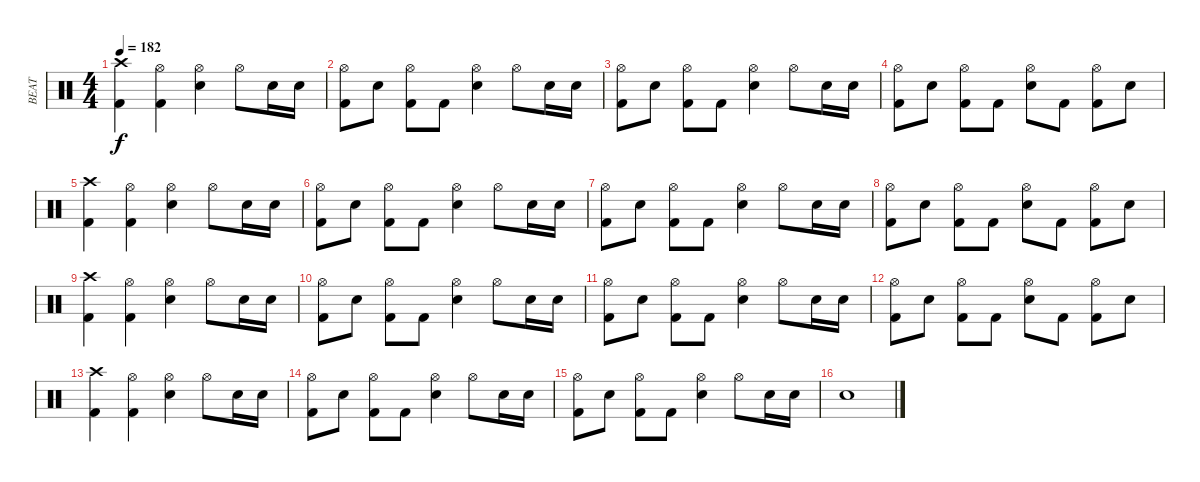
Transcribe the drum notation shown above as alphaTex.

\track ("BEAT" "BEAT") {instrument percussion}
\staff {score}
\articulation defaults
\ts (4 4)
\tempo 182
\clef neutral
\ks c
("Crash high (hit)" "Kick (hit) 2").4{dy f} ("Hi-Hat (open)" "Kick (hit) 2").4 ("Hi-Hat (open)" "Electric Snare (hit)").4 "Hi-Hat (open)".8 "Electric Snare (hit)".16 "Electric Snare (hit)".16 |
("Hi-Hat (open)" "Kick (hit) 2").8 "Electric Snare (hit)".8 ("Hi-Hat (open)" "Kick (hit) 2").8 "Kick (hit) 2".8 ("Hi-Hat (open)" "Electric Snare (hit)").4 "Hi-Hat (open)".8 "Electric Snare (hit)".16 "Electric Snare (hit)".16 |
("Hi-Hat (open)" "Kick (hit) 2").8 "Electric Snare (hit)".8 ("Hi-Hat (open)" "Kick (hit) 2").8 "Kick (hit) 2".8 ("Hi-Hat (open)" "Electric Snare (hit)").4 "Hi-Hat (open)".8 "Electric Snare (hit)".16 "Electric Snare (hit)".16 |
("Hi-Hat (open)" "Kick (hit) 2").8 "Electric Snare (hit)".8 ("Hi-Hat (open)" "Kick (hit) 2").8 "Kick (hit) 2".8 ("Hi-Hat (open)" "Electric Snare (hit)").8 "Kick (hit) 2".8 ("Hi-Hat (open)" "Kick (hit) 2").8 "Electric Snare (hit)".8 |
("Crash high (hit)" "Kick (hit) 2").4 ("Hi-Hat (open)" "Kick (hit) 2").4 ("Hi-Hat (open)" "Electric Snare (hit)").4 "Hi-Hat (open)".8 "Electric Snare (hit)".16 "Electric Snare (hit)".16 |
("Hi-Hat (open)" "Kick (hit) 2").8 "Electric Snare (hit)".8 ("Hi-Hat (open)" "Kick (hit) 2").8 "Kick (hit) 2".8 ("Hi-Hat (open)" "Electric Snare (hit)").4 "Hi-Hat (open)".8 "Electric Snare (hit)".16 "Electric Snare (hit)".16 |
("Hi-Hat (open)" "Kick (hit) 2").8 "Electric Snare (hit)".8 ("Hi-Hat (open)" "Kick (hit) 2").8 "Kick (hit) 2".8 ("Hi-Hat (open)" "Electric Snare (hit)").4 "Hi-Hat (open)".8 "Electric Snare (hit)".16 "Electric Snare (hit)".16 |
("Hi-Hat (open)" "Kick (hit) 2").8 "Electric Snare (hit)".8 ("Hi-Hat (open)" "Kick (hit) 2").8 "Kick (hit) 2".8 ("Hi-Hat (open)" "Electric Snare (hit)").8 "Kick (hit) 2".8 ("Hi-Hat (open)" "Kick (hit) 2").8 "Electric Snare (hit)".8 |
("Crash high (hit)" "Kick (hit) 2").4 ("Hi-Hat (open)" "Kick (hit) 2").4 ("Hi-Hat (open)" "Electric Snare (hit)").4 "Hi-Hat (open)".8 "Electric Snare (hit)".16 "Electric Snare (hit)".16 |
("Hi-Hat (open)" "Kick (hit) 2").8 "Electric Snare (hit)".8 ("Hi-Hat (open)" "Kick (hit) 2").8 "Kick (hit) 2".8 ("Hi-Hat (open)" "Electric Snare (hit)").4 "Hi-Hat (open)".8 "Electric Snare (hit)".16 "Electric Snare (hit)".16 |
("Hi-Hat (open)" "Kick (hit) 2").8 "Electric Snare (hit)".8 ("Hi-Hat (open)" "Kick (hit) 2").8 "Kick (hit) 2".8 ("Hi-Hat (open)" "Electric Snare (hit)").4 "Hi-Hat (open)".8 "Electric Snare (hit)".16 "Electric Snare (hit)".16 |
("Hi-Hat (open)" "Kick (hit) 2").8 "Electric Snare (hit)".8 ("Hi-Hat (open)" "Kick (hit) 2").8 "Kick (hit) 2".8 ("Hi-Hat (open)" "Electric Snare (hit)").8 "Kick (hit) 2".8 ("Hi-Hat (open)" "Kick (hit) 2").8 "Electric Snare (hit)".8 |
("Crash high (hit)" "Kick (hit) 2").4 ("Hi-Hat (open)" "Kick (hit) 2").4 ("Hi-Hat (open)" "Electric Snare (hit)").4 "Hi-Hat (open)".8 "Electric Snare (hit)".16 "Electric Snare (hit)".16 |
("Hi-Hat (open)" "Kick (hit) 2").8 "Electric Snare (hit)".8 ("Hi-Hat (open)" "Kick (hit) 2").8 "Kick (hit) 2".8 ("Hi-Hat (open)" "Electric Snare (hit)").4 "Hi-Hat (open)".8 "Electric Snare (hit)".16 "Electric Snare (hit)".16 |
("Hi-Hat (open)" "Kick (hit) 2").8 "Electric Snare (hit)".8 ("Hi-Hat (open)" "Kick (hit) 2").8 "Kick (hit) 2".8 ("Hi-Hat (open)" "Electric Snare (hit)").4 "Hi-Hat (open)".8 "Electric Snare (hit)".16 "Electric Snare (hit)".16 |
"Electric Snare (hit)".1
